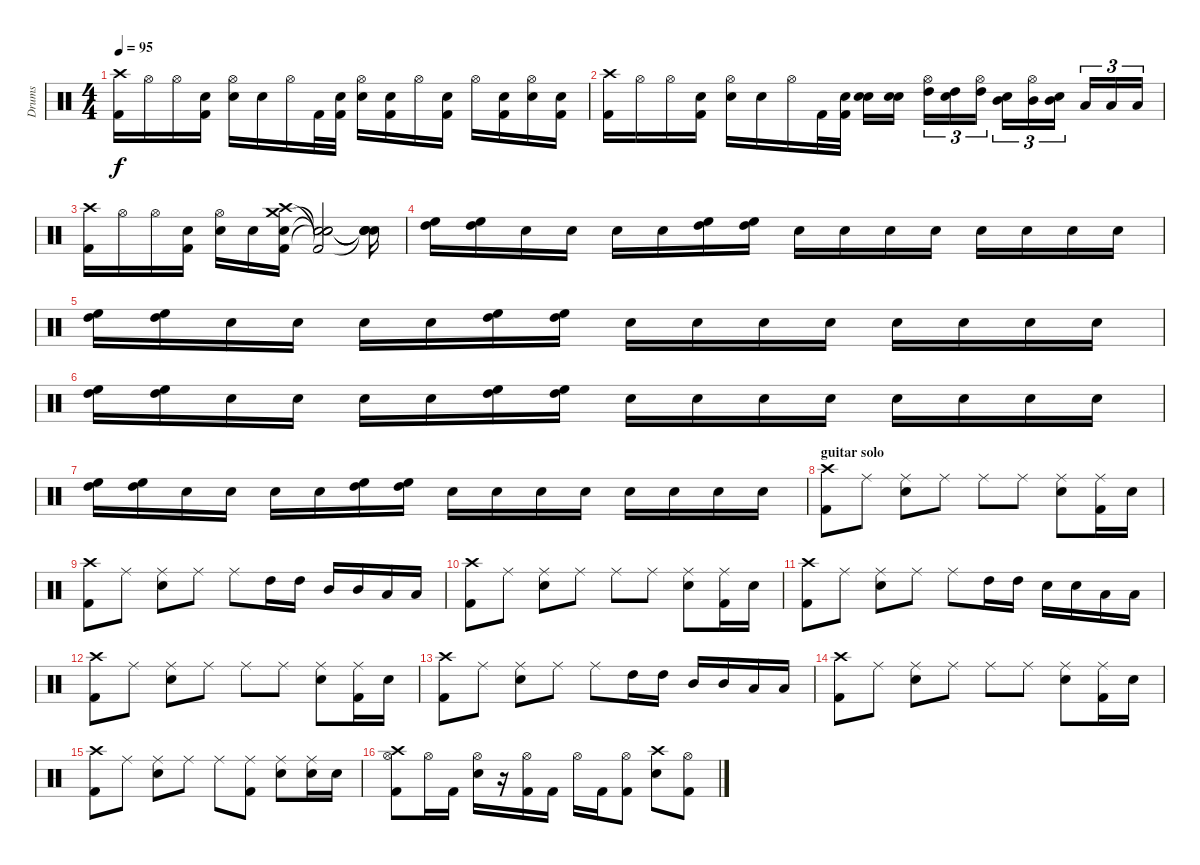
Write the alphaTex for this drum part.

\track ("Drums" "Drums") {instrument percussion}
\staff {score}
\articulation defaults
\ts (4 4)
\tempo 95
\clef neutral
\ks c
("Crash high (hit)" "Kick (hit) 2").16{dy f} "Hi-Hat (open)"{x}.16 "Hi-Hat (open)".16 ("Snare (hit)"{x} "Kick (hit) 2").16 ("Hi-Hat (open)" "Electric Snare (hit)").16 "Snare (hit)"{x}.16 "Hi-Hat (open)".16 "Kick (hit) 2".32 ("Snare (hit)"{x} "Kick (hit) 2").32 ("Hi-Hat (open)" "Electric Snare (hit)").16 ("Snare (hit)"{x} "Kick (hit) 2").16 "Hi-Hat (open)"{x}.16 ("Snare (hit)"{x} "Kick (hit) 2").16 "Hi-Hat (open)"{x}.16 ("Snare (hit)"{x} "Kick (hit) 2").16 ("Hi-Hat (open)"{x} "Electric Snare (hit)").16 ("Snare (hit)"{x} "Kick (hit) 2").16 |
("Crash high (hit)" "Kick (hit) 2").16 "Hi-Hat (open)"{x}.16 "Hi-Hat (open)".16 ("Snare (hit)"{x} "Kick (hit) 2").16 ("Hi-Hat (open)" "Electric Snare (hit)").16 "Snare (hit)"{x}.16 "Hi-Hat (open)".16 "Kick (hit) 2".32 ("Snare (hit)"{x} "Kick (hit) 2").32 ("Electric Snare (hit)" "Electric Snare (hit)").16 ("Snare (hit)"{x} "Electric Snare (hit)").16 ("Hi-Hat (open)"{x} "High Tom (hit)").16{tu (3 2)} ("Snare (hit)"{x} "High Tom (hit)").16{tu (3 2)} ("Hi-Hat (open)"{x} "High Tom (hit)").16{tu (3 2)} ("Snare (hit)"{x} "Mid Tom (hit)").16{tu (3 2)} ("Hi-Hat (open)"{x} "Mid Tom (hit)").16{tu (3 2)} ("Snare (hit)"{x} "Mid Tom (hit)").16{tu (3 2)} "Low Tom (hit)".16{tu (3 2)} "Low Tom (hit)".16{tu (3 2)} "Low Tom (hit)".16{tu (3 2)} |
("Crash high (hit)" "Kick (hit) 2").16 "Hi-Hat (open)"{x}.16 "Hi-Hat (open)".16 ("Snare (hit)"{x} "Kick (hit) 2").16 ("Hi-Hat (open)" "Electric Snare (hit)").16 "Snare (hit)"{x}.16 ("Crash medium (hit)" "Crash high (hit)" "Electric Snare (hit)" "Kick (hit) 2").16 ("Snare (hit)"{t} "Kick (hit) 2"{t} "Snare (hit)"{t} "Snare (hit)"{t}).2 ("Snare (hit)"{t} "Snare (hit)"{t} "Snare (hit)"{t} "Snare (hit)"{t}).16 |
("High Floor Tom (hit)" "High Tom (hit)").16 ("High Floor Tom (hit)" "High Tom (hit)").16 "Snare (hit)"{x}.16 "Snare (hit)"{x}.16 "Snare (hit)"{x}.16 "Snare (hit)"{x}.16 ("High Floor Tom (hit)" "High Tom (hit)").16 ("High Floor Tom (hit)" "High Tom (hit)").16 "Snare (hit)"{x}.16 "Snare (hit)"{x}.16 "Snare (hit)"{x}.16 "Snare (hit)"{x}.16 "Snare (hit)"{x}.16 "Snare (hit)"{x}.16 "Snare (hit)"{x}.16 "Snare (hit)"{x}.16 |
("High Floor Tom (hit)" "High Tom (hit)").16 ("High Floor Tom (hit)" "High Tom (hit)").16 "Snare (hit)"{x}.16 "Snare (hit)"{x}.16 "Snare (hit)"{x}.16 "Snare (hit)"{x}.16 ("High Floor Tom (hit)" "High Tom (hit)").16 ("High Floor Tom (hit)" "High Tom (hit)").16 "Snare (hit)"{x}.16 "Snare (hit)"{x}.16 "Snare (hit)"{x}.16 "Snare (hit)"{x}.16 "Snare (hit)"{x}.16 "Snare (hit)"{x}.16 "Snare (hit)"{x}.16 "Snare (hit)"{x}.16 |
("High Floor Tom (hit)" "High Tom (hit)").16 ("High Floor Tom (hit)" "High Tom (hit)").16 "Snare (hit)"{x}.16 "Snare (hit)"{x}.16 "Snare (hit)"{x}.16 "Snare (hit)"{x}.16 ("High Floor Tom (hit)" "High Tom (hit)").16 ("High Floor Tom (hit)" "High Tom (hit)").16 "Snare (hit)"{x}.16 "Snare (hit)"{x}.16 "Snare (hit)"{x}.16 "Snare (hit)"{x}.16 "Snare (hit)"{x}.16 "Snare (hit)"{x}.16 "Snare (hit)"{x}.16 "Snare (hit)"{x}.16 |
("High Floor Tom (hit)" "High Tom (hit)").16 ("High Floor Tom (hit)" "High Tom (hit)").16 "Snare (hit)"{x}.16 "Snare (hit)"{x}.16 "Snare (hit)"{x}.16 "Snare (hit)"{x}.16 ("High Floor Tom (hit)" "High Tom (hit)").16 ("High Floor Tom (hit)" "High Tom (hit)").16 "Snare (hit)"{x}.16 "Snare (hit)"{x}.16 "Snare (hit)"{x}.16 "Snare (hit)"{x}.16 "Snare (hit)"{x}.16 "Snare (hit)"{x}.16 "Snare (hit)"{x}.16 "Snare (hit)"{x}.16 |
\section ("" "guitar solo")
("Crash high (hit)" "Kick (hit) 2").8 "Ride (middle)".8 ("Ride (middle)" "Electric Snare (hit)").8 "Ride (middle)".8 "Ride (middle)".8 "Ride (middle)".8 ("Ride (middle)" "Electric Snare (hit)").8 ("Ride (middle)" "Kick (hit) 2").16 "Electric Snare (hit)".16 |
("Crash high (hit)" "Kick (hit) 2").8 "Ride (middle)".8 ("Ride (middle)" "Electric Snare (hit)").8 "Ride (middle)".8 "Ride (middle)".8 "High Tom (hit)".16 "High Tom (hit)".16 "Mid Tom (hit)".16 "Mid Tom (hit)".16 "Low Tom (hit)".16 "Low Tom (hit)".16 |
("Crash high (hit)" "Kick (hit) 2").8 "Ride (middle)".8 ("Ride (middle)" "Electric Snare (hit)").8 "Ride (middle)".8 "Ride (middle)".8 "Ride (middle)".8 ("Ride (middle)" "Electric Snare (hit)").8 ("Ride (middle)" "Kick (hit) 2").16 "Electric Snare (hit)".16 |
("Crash high (hit)" "Kick (hit) 2").8 "Ride (middle)".8 ("Ride (middle)" "Electric Snare (hit)").8 "Ride (middle)".8 "Ride (middle)".8 "High Tom (hit)".16 "High Tom (hit)".16 "Electric Snare (hit)".16 "Electric Snare (hit)".16 "Low Tom (hit)".16 "Low Tom (hit)".16 |
("Crash high (hit)" "Kick (hit) 2").8 "Ride (middle)".8 ("Ride (middle)" "Electric Snare (hit)").8 "Ride (middle)".8 "Ride (middle)".8 "Ride (middle)".8 ("Ride (middle)" "Electric Snare (hit)").8 ("Ride (middle)" "Kick (hit) 2").16 "Electric Snare (hit)".16 |
("Crash high (hit)" "Kick (hit) 2").8 "Ride (middle)".8 ("Ride (middle)" "Electric Snare (hit)").8 "Ride (middle)".8 "Ride (middle)".8 "High Tom (hit)".16 "High Tom (hit)".16 "Mid Tom (hit)".16 "Mid Tom (hit)".16 "Low Tom (hit)".16 "Low Tom (hit)".16 |
("Crash high (hit)" "Kick (hit) 2").8 "Ride (middle)".8 ("Ride (middle)" "Electric Snare (hit)").8 "Ride (middle)".8 "Ride (middle)".8 "Ride (middle)".8 ("Ride (middle)" "Electric Snare (hit)").8 ("Ride (middle)" "Kick (hit) 2").16 "Electric Snare (hit)".16 |
("Crash high (hit)" "Kick (hit) 2").8 "Ride (middle)".8 ("Ride (middle)" "Electric Snare (hit)").8 "Ride (middle)".8 "Ride (middle)".8 ("Ride (middle)" "Kick (hit) 2").8 ("Ride (middle)" "Electric Snare (hit)").8 ("Ride (middle)" "Electric Snare (hit)").16 "Electric Snare (hit)".16 |
("Hi-Hat (open)" "Crash high (hit)" "Kick (hit) 2").8 "Hi-Hat (open)".16 "Kick (hit) 2".16 ("Hi-Hat (open)" "Electric Snare (hit)").16 r.16 ("Hi-Hat (open)" "Kick (hit) 2").16 "Kick (hit) 2".16 "Hi-Hat (open)".16 "Kick (hit) 2".16 ("Hi-Hat (open)" "Kick (hit) 2").8 ("Electric Snare (hit)" "Crash high (hit)").8 ("Hi-Hat (open)" "Kick (hit) 2").8
